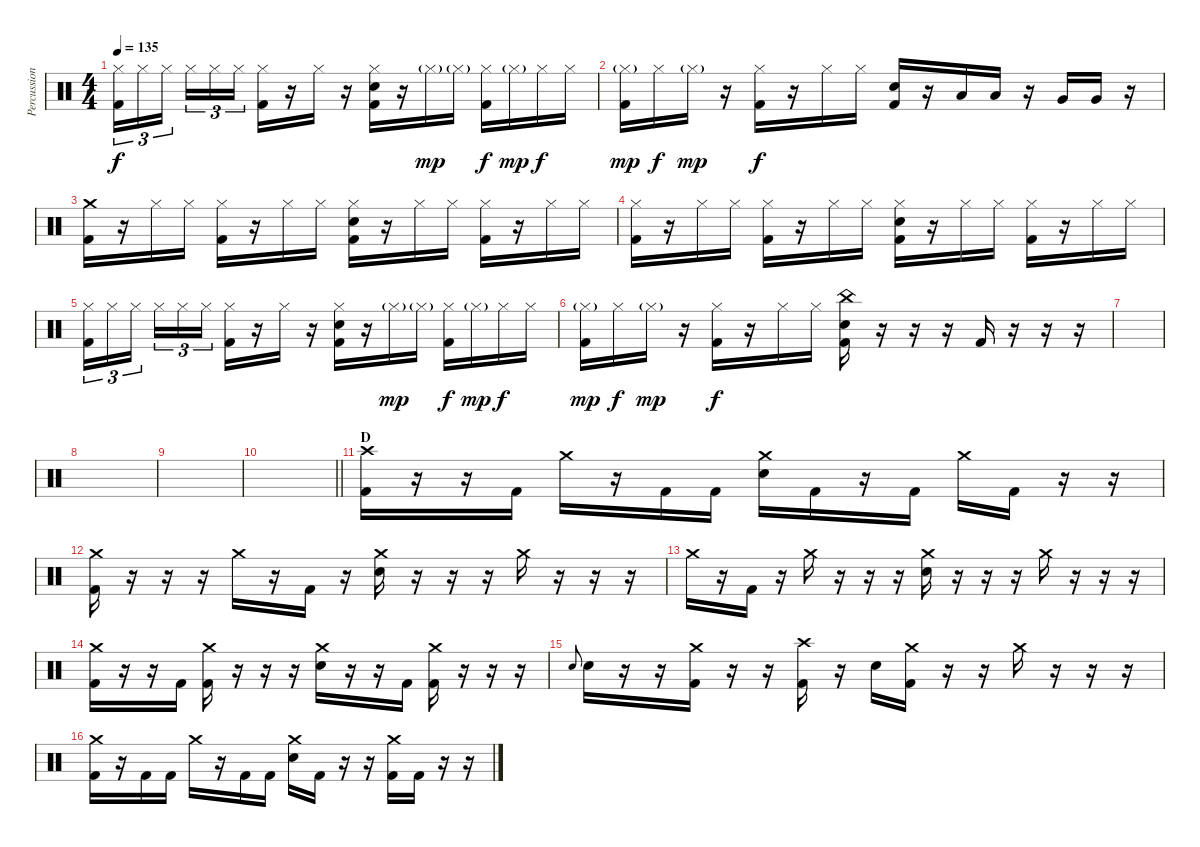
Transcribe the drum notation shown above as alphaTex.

\track ("Percussion" "Percussion") {instrument percussion}
\staff {score}
\articulation defaults
\ts (4 4)
\tempo 135
\clef neutral
\ks c
("Hi-Hat (closed)" "Kick (hit) 2").16{tu (3 2) dy f} "Hi-Hat (closed)".16{tu (3 2)} "Hi-Hat (closed)".16{tu (3 2) beam splitsecondary} "Hi-Hat (closed)".16{tu (3 2)} "Hi-Hat (closed)".16{tu (3 2)} "Hi-Hat (closed)".16{tu (3 2)} ("Hi-Hat (closed)" "Kick (hit) 2").16 r.16 "Hi-Hat (closed)".16 r.16 ("Hi-Hat (closed)" "Snare (hit) 2" "Kick (hit) 2").16 r.16 "Hi-Hat (closed)"{g}.16{dy mp} "Hi-Hat (closed)"{g}.16 ("Hi-Hat (closed)" "Kick (hit) 2").16{dy f} "Hi-Hat (closed)"{g}.16{dy mp} "Hi-Hat (closed)".16{dy f} "Hi-Hat (closed)".16 |
("Hi-Hat (closed)"{g} "Kick (hit) 2").16{dy mp} "Hi-Hat (closed)".16{dy f} "Hi-Hat (closed)"{g}.16{dy mp} r.16 ("Hi-Hat (closed)" "Kick (hit) 2").16{dy f} r.16 "Hi-Hat (closed)".16 "Hi-Hat (closed)".16 ("Snare (hit) 2" "Kick (hit) 2").16 r.16 "Low Tom (hit)".16 "Low Tom (hit)".16 r.16 "Very Low Tom (hit)".16 "Very Low Tom (hit)".16 r.16 |
("Crash medium (hit)" "Kick (hit) 2").16 r.16 "Hi-Hat (closed)".16 "Hi-Hat (closed)".16 ("Hi-Hat (closed)" "Kick (hit) 2").16 r.16 "Hi-Hat (closed)".16 "Hi-Hat (closed)".16 ("Hi-Hat (closed)" "Snare (hit) 2" "Kick (hit) 2").16 r.16 "Hi-Hat (closed)".16 "Hi-Hat (closed)".16 ("Hi-Hat (closed)" "Kick (hit) 2").16 r.16 "Hi-Hat (closed)".16 "Hi-Hat (closed)".16 |
("Hi-Hat (closed)" "Kick (hit) 2").16 r.16 "Hi-Hat (closed)".16 "Hi-Hat (closed)".16 ("Hi-Hat (closed)" "Kick (hit) 2").16 r.16 "Hi-Hat (closed)".16 "Hi-Hat (closed)".16 ("Hi-Hat (closed)" "Snare (hit) 2" "Kick (hit) 2").16 r.16 "Hi-Hat (closed)".16 "Hi-Hat (closed)".16 ("Hi-Hat (closed)" "Kick (hit) 2").16 r.16 "Hi-Hat (closed)".16 "Hi-Hat (closed)".16 |
("Hi-Hat (closed)" "Kick (hit) 2").16{tu (3 2)} "Hi-Hat (closed)".16{tu (3 2)} "Hi-Hat (closed)".16{tu (3 2) beam splitsecondary} "Hi-Hat (closed)".16{tu (3 2)} "Hi-Hat (closed)".16{tu (3 2)} "Hi-Hat (closed)".16{tu (3 2)} ("Hi-Hat (closed)" "Kick (hit) 2").16 r.16 "Hi-Hat (closed)".16 r.16 ("Hi-Hat (closed)" "Snare (hit) 2" "Kick (hit) 2").16 r.16 "Hi-Hat (closed)"{g}.16{dy mp} "Hi-Hat (closed)"{g}.16 ("Hi-Hat (closed)" "Kick (hit) 2").16{dy f} "Hi-Hat (closed)"{g}.16{dy mp} "Hi-Hat (closed)".16{dy f} "Hi-Hat (closed)".16 |
("Hi-Hat (closed)"{g} "Kick (hit) 2").16{dy mp} "Hi-Hat (closed)".16{dy f} "Hi-Hat (closed)"{g}.16{dy mp} r.16 ("Hi-Hat (closed)" "Kick (hit) 2").16{dy f} r.16 "Hi-Hat (closed)".16 "Hi-Hat (closed)".16 ("China (hit)" "Snare (hit) 2" "Kick (hit) 2").16 r.16 r.16 r.16 "Kick (hit) 2".16 r.16 r.16 r.16 |
|
|
|
\barLineRight lightlight
|
\section ("" "D")
("Crash high (hit)" "Kick (hit) 2").16 r.16 r.16 "Kick (hit) 2".16 "Crash medium (hit)".16 r.16 "Kick (hit) 2".16 "Kick (hit) 2".16 ("Crash medium (hit)" "Snare (hit) 2").16 "Kick (hit) 2".16 r.16 "Kick (hit) 2".16 "Crash medium (hit)".16 "Kick (hit) 2".16 r.16 r.16 |
("Crash medium (hit)" "Kick (hit) 2").16 r.16 r.16 r.16 "Crash medium (hit)".16 r.16 "Kick (hit) 2".16 r.16 ("Crash medium (hit)" "Snare (hit) 2").16 r.16 r.16 r.16 "Crash medium (hit)".16 r.16 r.16 r.16 |
"Crash medium (hit)".16 r.16 "Kick (hit) 2".16 r.16 "Crash medium (hit)".16 r.16 r.16 r.16 ("Crash medium (hit)" "Snare (hit) 2").16 r.16 r.16 r.16 "Crash medium (hit)".16 r.16 r.16 r.16 |
("Crash medium (hit)" "Kick (hit) 2").16 r.16 r.16 "Kick (hit) 2".16 ("Crash medium (hit)" "Kick (hit) 2").16 r.16 r.16 r.16 ("Crash medium (hit)" "Snare (hit) 2").16 r.16 r.16 "Kick (hit) 2".16 ("Crash medium (hit)" "Kick (hit) 2").16 r.16 r.16 r.16 |
"Snare (hit) 2".8{gr onbeat} "Snare (hit) 2".16 r.16 r.16 ("Crash medium (hit)" "Kick (hit) 2").16 r.16 r.16 ("Crash high (hit)" "Kick (hit) 2").16 r.16 "Snare (hit) 2".16 ("Crash medium (hit)" "Kick (hit) 2").16 r.16 r.16 "Crash medium (hit)".16 r.16 r.16 r.16 |
("Crash medium (hit)" "Kick (hit) 2").16 r.16 "Kick (hit) 2".16 "Kick (hit) 2".16 "Crash medium (hit)".16 r.16 "Kick (hit) 2".16 "Kick (hit) 2".16 ("Crash medium (hit)" "Snare (hit) 2").16 "Kick (hit) 2".16 r.16 r.16 ("Crash medium (hit)" "Kick (hit) 2").16 "Kick (hit) 2".16 r.16 r.16
